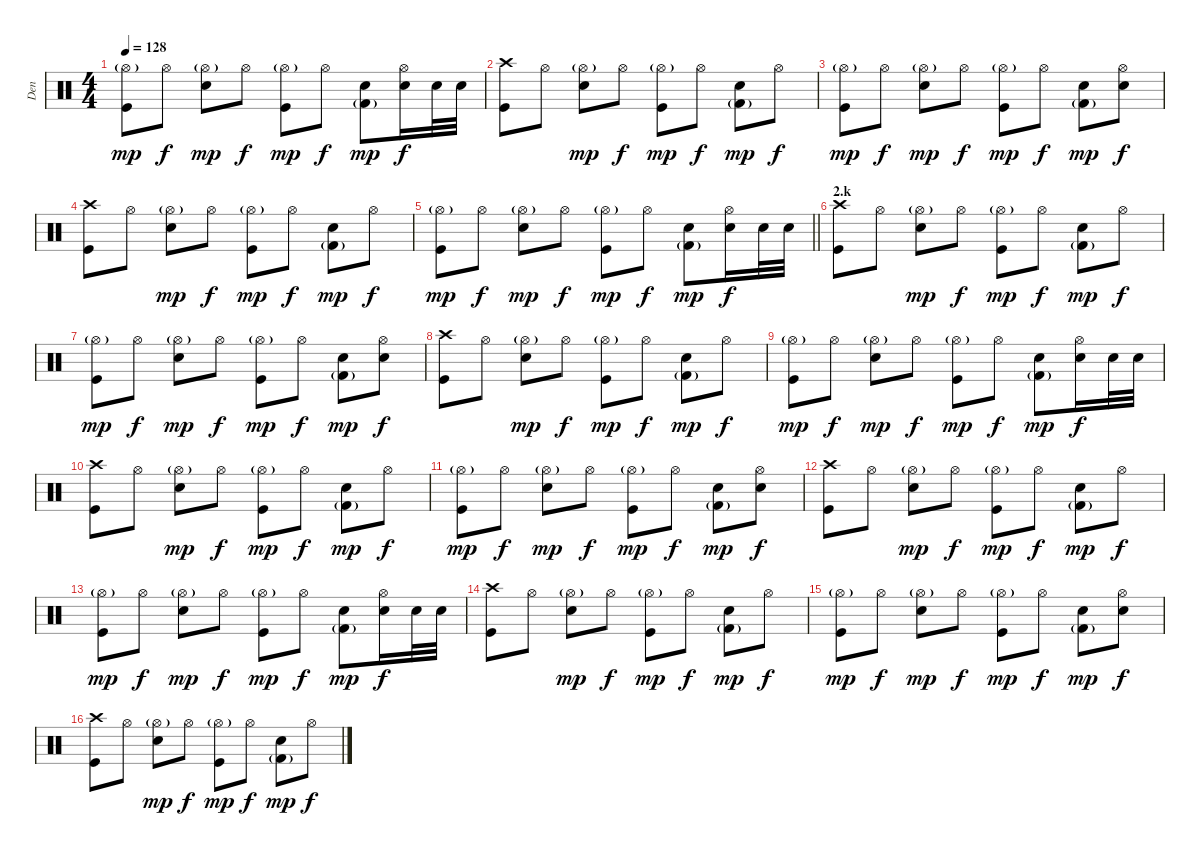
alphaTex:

\track ("Den" "Den") {instrument percussion}
\staff
\articulation defaults
\ts (4 4)
\tempo 128
\clef neutral
\ks c
("Hi-Hat (open)"{g} "Kick (hit)").8{dy mp} "Hi-Hat (open)".8{dy f} ("Hi-Hat (open)"{g} "Snare (hit) 2").8{dy mp} "Hi-Hat (open)".8{dy f} ("Hi-Hat (open)"{g} "Kick (hit)").8{dy mp} "Hi-Hat (open)".8{dy f} ("Kick (hit) 2"{g} "Snare (hit) 2").8{dy mp} ("Hi-Hat (open)" "Snare (hit) 2").16{dy f} "Snare (hit) 2".32 "Snare (hit) 2".32 |
("Crash high (hit)" "Kick (hit)").8 "Hi-Hat (open)".8 ("Hi-Hat (open)"{g} "Snare (hit) 2").8{dy mp} "Hi-Hat (open)".8{dy f} ("Hi-Hat (open)"{g} "Kick (hit)").8{dy mp} "Hi-Hat (open)".8{dy f} ("Kick (hit) 2"{g} "Snare (hit) 2").8{dy mp} "Hi-Hat (open)".8{dy f} |
("Hi-Hat (open)"{g} "Kick (hit)").8{dy mp} "Hi-Hat (open)".8{dy f} ("Hi-Hat (open)"{g} "Snare (hit) 2").8{dy mp} "Hi-Hat (open)".8{dy f} ("Hi-Hat (open)"{g} "Kick (hit)").8{dy mp} "Hi-Hat (open)".8{dy f} ("Kick (hit) 2"{g} "Snare (hit) 2").8{dy mp} ("Hi-Hat (open)" "Snare (hit) 2").8{dy f} |
("Crash high (hit)" "Kick (hit)").8 "Hi-Hat (open)".8 ("Hi-Hat (open)"{g} "Snare (hit) 2").8{dy mp} "Hi-Hat (open)".8{dy f} ("Hi-Hat (open)"{g} "Kick (hit)").8{dy mp} "Hi-Hat (open)".8{dy f} ("Kick (hit) 2"{g} "Snare (hit) 2").8{dy mp} "Hi-Hat (open)".8{dy f} |
\barLineRight lightlight
("Hi-Hat (open)"{g} "Kick (hit)").8{dy mp} "Hi-Hat (open)".8{dy f} ("Hi-Hat (open)"{g} "Snare (hit) 2").8{dy mp} "Hi-Hat (open)".8{dy f} ("Hi-Hat (open)"{g} "Kick (hit)").8{dy mp} "Hi-Hat (open)".8{dy f} ("Kick (hit) 2"{g} "Snare (hit) 2").8{dy mp} ("Hi-Hat (open)" "Snare (hit) 2").16{dy f} "Snare (hit) 2".32 "Snare (hit) 2".32 |
\section ("" "2.k")
("Crash high (hit)" "Kick (hit)").8 "Hi-Hat (open)".8 ("Hi-Hat (open)"{g} "Snare (hit) 2").8{dy mp} "Hi-Hat (open)".8{dy f} ("Hi-Hat (open)"{g} "Kick (hit)").8{dy mp} "Hi-Hat (open)".8{dy f} ("Kick (hit) 2"{g} "Snare (hit) 2").8{dy mp} "Hi-Hat (open)".8{dy f} |
("Hi-Hat (open)"{g} "Kick (hit)").8{dy mp} "Hi-Hat (open)".8{dy f} ("Hi-Hat (open)"{g} "Snare (hit) 2").8{dy mp} "Hi-Hat (open)".8{dy f} ("Hi-Hat (open)"{g} "Kick (hit)").8{dy mp} "Hi-Hat (open)".8{dy f} ("Kick (hit) 2"{g} "Snare (hit) 2").8{dy mp} ("Hi-Hat (open)" "Snare (hit) 2").8{dy f} |
("Crash high (hit)" "Kick (hit)").8 "Hi-Hat (open)".8 ("Hi-Hat (open)"{g} "Snare (hit) 2").8{dy mp} "Hi-Hat (open)".8{dy f} ("Hi-Hat (open)"{g} "Kick (hit)").8{dy mp} "Hi-Hat (open)".8{dy f} ("Kick (hit) 2"{g} "Snare (hit) 2").8{dy mp} "Hi-Hat (open)".8{dy f} |
("Hi-Hat (open)"{g} "Kick (hit)").8{dy mp} "Hi-Hat (open)".8{dy f} ("Hi-Hat (open)"{g} "Snare (hit) 2").8{dy mp} "Hi-Hat (open)".8{dy f} ("Hi-Hat (open)"{g} "Kick (hit)").8{dy mp} "Hi-Hat (open)".8{dy f} ("Kick (hit) 2"{g} "Snare (hit) 2").8{dy mp} ("Hi-Hat (open)" "Snare (hit) 2").16{dy f} "Snare (hit) 2".32 "Snare (hit) 2".32 |
("Crash high (hit)" "Kick (hit)").8 "Hi-Hat (open)".8 ("Hi-Hat (open)"{g} "Snare (hit) 2").8{dy mp} "Hi-Hat (open)".8{dy f} ("Hi-Hat (open)"{g} "Kick (hit)").8{dy mp} "Hi-Hat (open)".8{dy f} ("Kick (hit) 2"{g} "Snare (hit) 2").8{dy mp} "Hi-Hat (open)".8{dy f} |
("Hi-Hat (open)"{g} "Kick (hit)").8{dy mp} "Hi-Hat (open)".8{dy f} ("Hi-Hat (open)"{g} "Snare (hit) 2").8{dy mp} "Hi-Hat (open)".8{dy f} ("Hi-Hat (open)"{g} "Kick (hit)").8{dy mp} "Hi-Hat (open)".8{dy f} ("Kick (hit) 2"{g} "Snare (hit) 2").8{dy mp} ("Hi-Hat (open)" "Snare (hit) 2").8{dy f} |
("Crash high (hit)" "Kick (hit)").8 "Hi-Hat (open)".8 ("Hi-Hat (open)"{g} "Snare (hit) 2").8{dy mp} "Hi-Hat (open)".8{dy f} ("Hi-Hat (open)"{g} "Kick (hit)").8{dy mp} "Hi-Hat (open)".8{dy f} ("Kick (hit) 2"{g} "Snare (hit) 2").8{dy mp} "Hi-Hat (open)".8{dy f} |
("Hi-Hat (open)"{g} "Kick (hit)").8{dy mp} "Hi-Hat (open)".8{dy f} ("Hi-Hat (open)"{g} "Snare (hit) 2").8{dy mp} "Hi-Hat (open)".8{dy f} ("Hi-Hat (open)"{g} "Kick (hit)").8{dy mp} "Hi-Hat (open)".8{dy f} ("Kick (hit) 2"{g} "Snare (hit) 2").8{dy mp} ("Hi-Hat (open)" "Snare (hit) 2").16{dy f} "Snare (hit) 2".32 "Snare (hit) 2".32 |
("Crash high (hit)" "Kick (hit)").8 "Hi-Hat (open)".8 ("Hi-Hat (open)"{g} "Snare (hit) 2").8{dy mp} "Hi-Hat (open)".8{dy f} ("Hi-Hat (open)"{g} "Kick (hit)").8{dy mp} "Hi-Hat (open)".8{dy f} ("Kick (hit) 2"{g} "Snare (hit) 2").8{dy mp} "Hi-Hat (open)".8{dy f} |
("Hi-Hat (open)"{g} "Kick (hit)").8{dy mp} "Hi-Hat (open)".8{dy f} ("Hi-Hat (open)"{g} "Snare (hit) 2").8{dy mp} "Hi-Hat (open)".8{dy f} ("Hi-Hat (open)"{g} "Kick (hit)").8{dy mp} "Hi-Hat (open)".8{dy f} ("Kick (hit) 2"{g} "Snare (hit) 2").8{dy mp} ("Hi-Hat (open)" "Snare (hit) 2").8{dy f} |
("Crash high (hit)" "Kick (hit)").8 "Hi-Hat (open)".8 ("Hi-Hat (open)"{g} "Snare (hit) 2").8{dy mp} "Hi-Hat (open)".8{dy f} ("Hi-Hat (open)"{g} "Kick (hit)").8{dy mp} "Hi-Hat (open)".8{dy f} ("Kick (hit) 2"{g} "Snare (hit) 2").8{dy mp} "Hi-Hat (open)".8{dy f}
